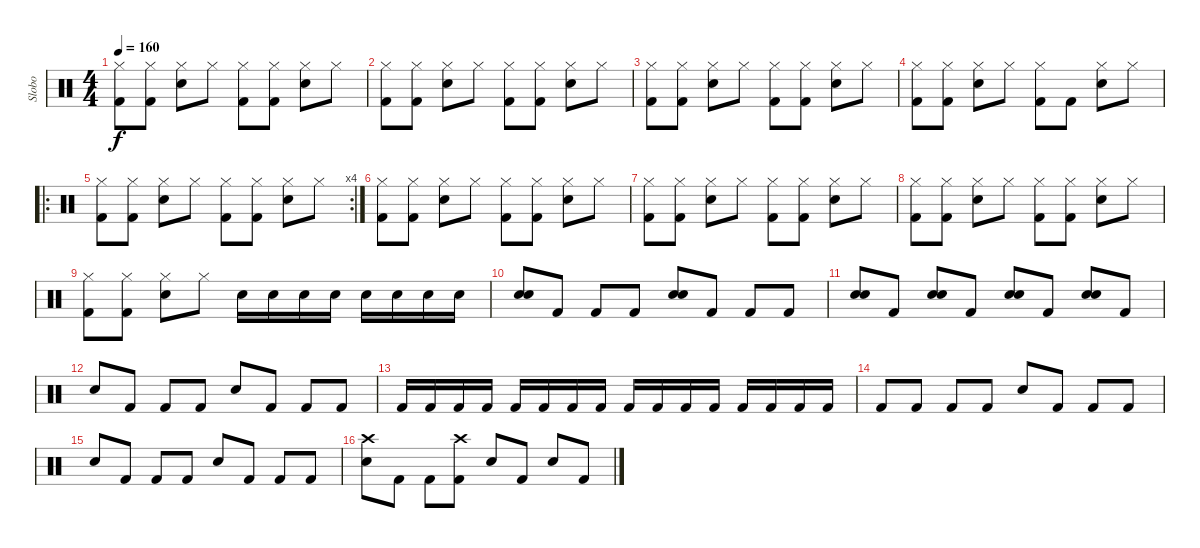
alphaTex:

\track ("Slobo" "Slobo") {instrument percussion}
\staff {score}
\articulation defaults
\ts (4 4)
\tempo 160
\clef neutral
\ks c
("Kick (hit) 2" "Hi-Hat (closed)").8{dy f} ("Kick (hit) 2" "Hi-Hat (closed)").8 ("Snare (hit) 2" "Hi-Hat (closed)").8 "Hi-Hat (closed)".8 ("Kick (hit) 2" "Hi-Hat (closed)").8 ("Kick (hit) 2" "Hi-Hat (closed)").8 ("Snare (hit) 2" "Hi-Hat (closed)").8 "Hi-Hat (closed)".8 |
("Kick (hit) 2" "Hi-Hat (closed)").8 ("Kick (hit) 2" "Hi-Hat (closed)").8 ("Snare (hit) 2" "Hi-Hat (closed)").8 "Hi-Hat (closed)".8 ("Kick (hit) 2" "Hi-Hat (closed)").8 ("Kick (hit) 2" "Hi-Hat (closed)").8 ("Snare (hit) 2" "Hi-Hat (closed)").8 "Hi-Hat (closed)".8 |
("Kick (hit) 2" "Hi-Hat (closed)").8 ("Kick (hit) 2" "Hi-Hat (closed)").8 ("Snare (hit) 2" "Hi-Hat (closed)").8 "Hi-Hat (closed)".8 ("Kick (hit) 2" "Hi-Hat (closed)").8 ("Kick (hit) 2" "Hi-Hat (closed)").8 ("Snare (hit) 2" "Hi-Hat (closed)").8 "Hi-Hat (closed)".8 |
("Kick (hit) 2" "Hi-Hat (closed)").8 ("Kick (hit) 2" "Hi-Hat (closed)").8 ("Snare (hit) 2" "Hi-Hat (closed)").8 "Hi-Hat (closed)".8 ("Kick (hit) 2" "Hi-Hat (closed)").8 "Kick (hit) 2".8 ("Snare (hit) 2" "Hi-Hat (closed)").8 "Hi-Hat (closed)".8 |
\ro
\rc 4
("Kick (hit) 2" "Hi-Hat (closed)").8 ("Kick (hit) 2" "Hi-Hat (closed)").8 ("Snare (hit) 2" "Hi-Hat (closed)").8 "Hi-Hat (closed)".8 ("Kick (hit) 2" "Hi-Hat (closed)").8 ("Kick (hit) 2" "Hi-Hat (closed)").8 ("Snare (hit) 2" "Hi-Hat (closed)").8 "Hi-Hat (closed)".8 |
("Kick (hit) 2" "Hi-Hat (closed)").8 ("Kick (hit) 2" "Hi-Hat (closed)").8 ("Snare (hit) 2" "Hi-Hat (closed)").8 "Hi-Hat (closed)".8 ("Kick (hit) 2" "Hi-Hat (closed)").8 ("Kick (hit) 2" "Hi-Hat (closed)").8 ("Snare (hit) 2" "Hi-Hat (closed)").8 "Hi-Hat (closed)".8 |
("Kick (hit) 2" "Hi-Hat (closed)").8 ("Kick (hit) 2" "Hi-Hat (closed)").8 ("Snare (hit) 2" "Hi-Hat (closed)").8 "Hi-Hat (closed)".8 ("Kick (hit) 2" "Hi-Hat (closed)").8 ("Kick (hit) 2" "Hi-Hat (closed)").8 ("Snare (hit) 2" "Hi-Hat (closed)").8 "Hi-Hat (closed)".8 |
("Kick (hit) 2" "Hi-Hat (closed)").8 ("Kick (hit) 2" "Hi-Hat (closed)").8 ("Snare (hit) 2" "Hi-Hat (closed)").8 "Hi-Hat (closed)".8 ("Kick (hit) 2" "Hi-Hat (closed)").8 ("Kick (hit) 2" "Hi-Hat (closed)").8 ("Snare (hit) 2" "Hi-Hat (closed)").8 "Hi-Hat (closed)".8 |
("Kick (hit) 2" "Hi-Hat (closed)").8 ("Kick (hit) 2" "Hi-Hat (closed)").8 ("Snare (hit) 2" "Hi-Hat (closed)").8 "Hi-Hat (closed)".8 "Snare (hit) 2".16 "Snare (hit) 2".16 "Snare (hit) 2".16 "Snare (hit) 2".16 "Snare (hit) 2".16 "Snare (hit) 2".16 "Snare (hit) 2".16 "Snare (hit) 2".16 |
("Snare (hit) 2" "Snare (hit) 2").8{bd 480} "Kick (hit) 2".8 "Kick (hit) 2".8 "Kick (hit) 2".8 ("Snare (hit) 2" "Snare (hit) 2").8{bd 480} "Kick (hit) 2".8 "Kick (hit) 2".8 "Kick (hit) 2".8 |
("Snare (hit) 2" "Snare (hit) 2").8{bd 480} "Kick (hit) 2".8 ("Snare (hit) 2" "Snare (hit) 2").8{bd 480} "Kick (hit) 2".8 ("Snare (hit) 2" "Snare (hit) 2").8{bd 480} "Kick (hit) 2".8 ("Snare (hit) 2" "Snare (hit) 2").8{bd 480} "Kick (hit) 2".8 |
"Snare (hit) 2".8 "Kick (hit) 2".8 "Kick (hit) 2".8 "Kick (hit) 2".8 "Snare (hit) 2".8 "Kick (hit) 2".8 "Kick (hit) 2".8 "Kick (hit) 2".8 |
"Kick (hit) 2".16 "Kick (hit) 2".16 "Kick (hit) 2".16 "Kick (hit) 2".16 "Kick (hit) 2".16 "Kick (hit) 2".16 "Kick (hit) 2".16 "Kick (hit) 2".16 "Kick (hit) 2".16 "Kick (hit) 2".16 "Kick (hit) 2".16 "Kick (hit) 2".16 "Kick (hit) 2".16 "Kick (hit) 2".16 "Kick (hit) 2".16 "Kick (hit) 2".16 |
"Kick (hit) 2".8 "Kick (hit) 2".8 "Kick (hit) 2".8 "Kick (hit) 2".8 "Snare (hit) 2".8 "Kick (hit) 2".8 "Kick (hit) 2".8 "Kick (hit) 2".8 |
"Snare (hit) 2".8 "Kick (hit) 2".8 "Kick (hit) 2".8 "Kick (hit) 2".8 "Snare (hit) 2".8 "Kick (hit) 2".8 "Kick (hit) 2".8 "Kick (hit) 2".8 |
("Crash high (hit)" "Snare (hit) 2").8 "Kick (hit) 2".8 "Kick (hit) 2".8 ("Crash high (hit)" "Kick (hit) 2").8 "Snare (hit) 2".8 "Kick (hit) 2".8 "Snare (hit) 2".8 "Kick (hit) 2".8
